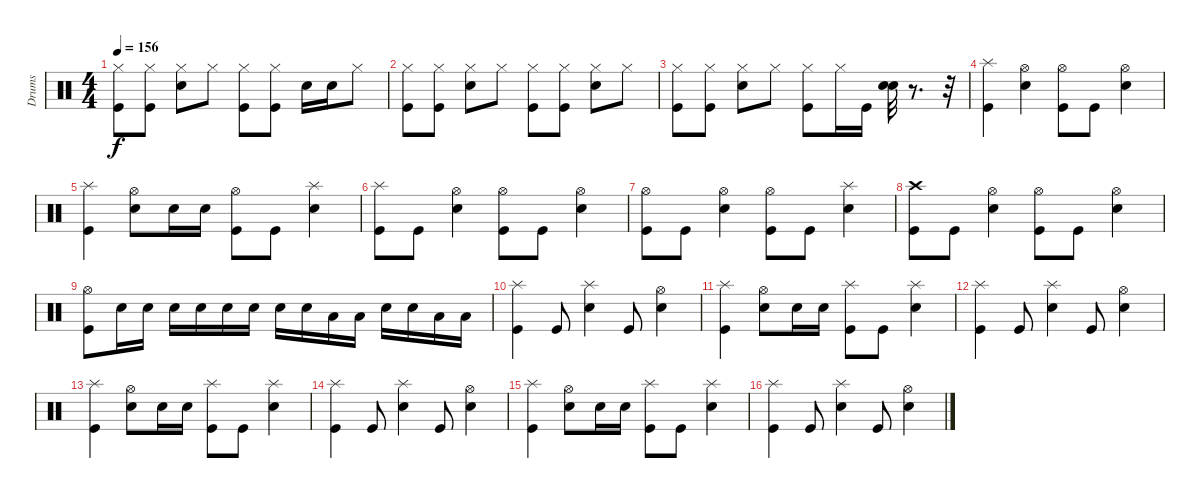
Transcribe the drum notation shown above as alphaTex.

\track ("Drums" "Drums") {instrument percussion}
\staff {score}
\articulation defaults
\ts (4 4)
\tempo 156
\clef neutral
\ks c
("Hi-Hat (closed)" "Kick (hit)").8{dy f} ("Hi-Hat (closed)" "Kick (hit)").8 ("Hi-Hat (closed)" "Snare (hit) 2").8 "Hi-Hat (closed)".8 ("Hi-Hat (closed)" "Kick (hit)").8 ("Hi-Hat (closed)" "Kick (hit)").8 "Snare (hit) 2".16 "Snare (hit) 2".16 "Hi-Hat (closed)".8 |
("Hi-Hat (closed)" "Kick (hit)").8 ("Hi-Hat (closed)" "Kick (hit)").8 ("Hi-Hat (closed)" "Snare (hit) 2").8 "Hi-Hat (closed)".8 ("Hi-Hat (closed)" "Kick (hit)").8 ("Hi-Hat (closed)" "Kick (hit)").8 ("Hi-Hat (closed)" "Snare (hit) 2").8 "Hi-Hat (closed)".8 |
("Hi-Hat (closed)" "Kick (hit)").8 ("Hi-Hat (closed)" "Kick (hit)").8 ("Hi-Hat (closed)" "Snare (hit) 2").8 "Hi-Hat (closed)".8 ("Hi-Hat (closed)" "Kick (hit)").8 "Hi-Hat (closed)".16 "Kick (hit)".16 ("Snare (hit) 2" "Snare (hit) 2").32 r.8{d} r.32 |
("Splash (hit)" "Kick (hit)").4 ("Hi-Hat (open)" "Snare (hit) 2").4 ("Hi-Hat (open)" "Kick (hit)").8 "Kick (hit)".8 ("Hi-Hat (open)" "Snare (hit) 2").4 |
("Splash (hit)" "Kick (hit)").4 ("Hi-Hat (open)" "Snare (hit) 2").8 "Snare (hit) 2".16 "Snare (hit) 2".16 ("Hi-Hat (open)" "Kick (hit)").8 "Kick (hit)".8 ("Splash (hit)" "Snare (hit) 2").4 |
("Splash (hit)" "Kick (hit)").8 "Kick (hit)".8 ("Hi-Hat (open)" "Snare (hit) 2").4 ("Hi-Hat (open)" "Kick (hit)").8 "Kick (hit)".8 ("Hi-Hat (open)" "Snare (hit) 2").4 |
("Hi-Hat (open)" "Kick (hit)").8 "Kick (hit)".8 ("Hi-Hat (open)" "Snare (hit) 2").4 ("Hi-Hat (open)" "Kick (hit)").8 "Kick (hit)".8 ("Splash (hit)" "Snare (hit) 2").4 |
("Crash high (hit)" "Kick (hit)").8 "Kick (hit)".8 ("Hi-Hat (open)" "Snare (hit) 2").4 ("Hi-Hat (open)" "Kick (hit)").8 "Kick (hit)".8 ("Hi-Hat (open)" "Snare (hit) 2").4 |
("Hi-Hat (open)" "Kick (hit)").8 "Snare (hit) 2".16 "Snare (hit) 2".16 "Snare (hit) 2".16 "Snare (hit) 2".16 "Snare (hit) 2".16 "Snare (hit) 2".16 "Snare (hit) 2".16 "Snare (hit) 2".16 "Low Tom (hit)".16 "Low Tom (hit)".16 "Snare (hit) 2".16 "Snare (hit) 2".16 "Low Tom (hit)".16 "Low Tom (hit)".16 |
("Splash (hit)" "Kick (hit)").4 "Kick (hit)".8 ("Splash (hit)" "Snare (hit) 2").4 "Kick (hit)".8 ("Hi-Hat (open)" "Snare (hit) 2").4 |
("Splash (hit)" "Kick (hit)").4 ("Hi-Hat (open)" "Snare (hit) 2").8 "Snare (hit) 2".16 "Snare (hit) 2".16 ("Splash (hit)" "Kick (hit)").8 "Kick (hit)".8 ("Splash (hit)" "Snare (hit) 2").4 |
("Splash (hit)" "Kick (hit)").4 "Kick (hit)".8 ("Splash (hit)" "Snare (hit) 2").4 "Kick (hit)".8 ("Hi-Hat (open)" "Snare (hit) 2").4 |
("Splash (hit)" "Kick (hit)").4 ("Hi-Hat (open)" "Snare (hit) 2").8 "Snare (hit) 2".16 "Snare (hit) 2".16 ("Splash (hit)" "Kick (hit)").8 "Kick (hit)".8 ("Splash (hit)" "Snare (hit) 2").4 |
("Splash (hit)" "Kick (hit)").4 "Kick (hit)".8 ("Splash (hit)" "Snare (hit) 2").4 "Kick (hit)".8 ("Hi-Hat (open)" "Snare (hit) 2").4 |
("Splash (hit)" "Kick (hit)").4 ("Hi-Hat (open)" "Snare (hit) 2").8 "Snare (hit) 2".16 "Snare (hit) 2".16 ("Splash (hit)" "Kick (hit)").8 "Kick (hit)".8 ("Splash (hit)" "Snare (hit) 2").4 |
("Splash (hit)" "Kick (hit)").4 "Kick (hit)".8 ("Splash (hit)" "Snare (hit) 2").4 "Kick (hit)".8 ("Hi-Hat (open)" "Snare (hit) 2").4
